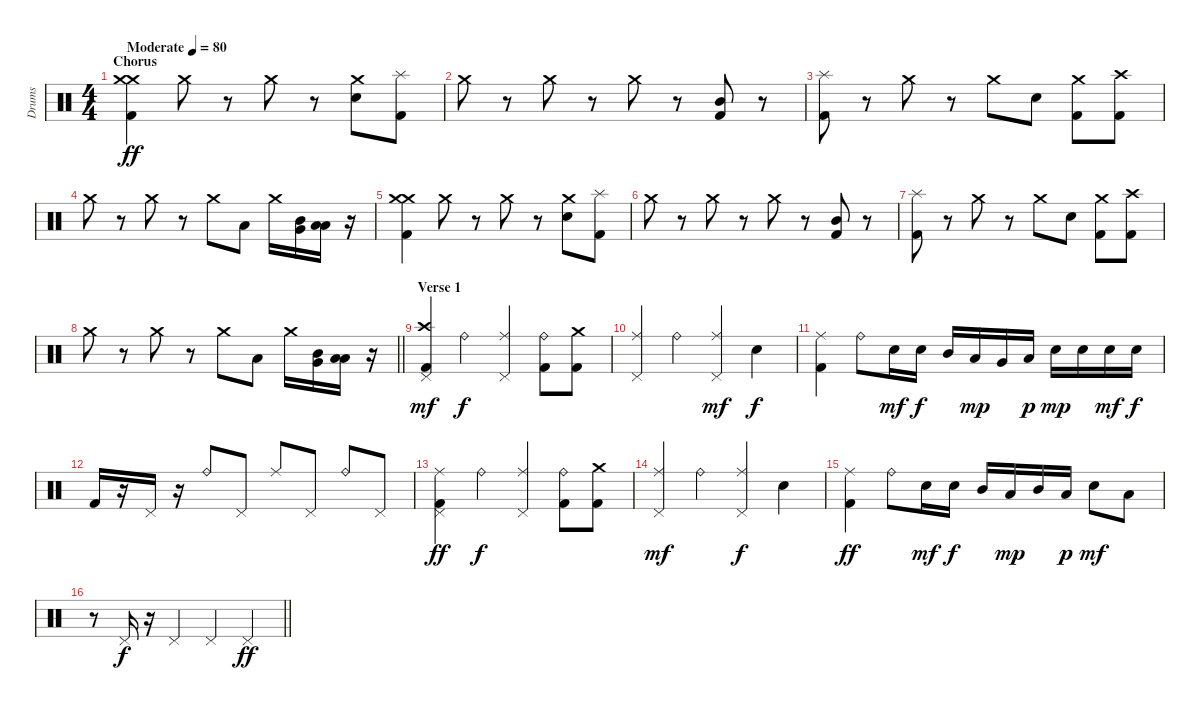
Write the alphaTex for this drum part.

\track ("Drums" "Drums") {instrument percussion}
\staff {score}
\articulation defaults
\ts (4 4)
\section ("" "Chorus")
\tempo (80 "Moderate")
\clef neutral
\ks c
("Crash medium (hit)" "Kick (hit) 2" "Crash medium (hit)").4{dy ff} "Crash medium (hit)".8 r.8 "Crash medium (hit)".8 r.8 ("Snare (hit) 2" "Crash medium (hit)").8 ("Kick (hit) 2" "Splash (hit)").8 |
"Crash medium (hit)".8 r.8 "Crash medium (hit)".8 r.8 "Crash medium (hit)".8 r.8 ("Kick (hit) 2" "Mid Tom (hit)").8 r.8 |
("Kick (hit) 2" "Splash (hit)").8 r.8 "Crash medium (hit)".8 r.8 "Crash medium (hit)".8 "Snare (hit) 2".8 ("Kick (hit) 2" "Crash medium (hit)").8 ("Kick (hit) 2" "Crash high (hit)").8 |
"Crash medium (hit)".8 r.8 "Crash medium (hit)".8 r.8 "Crash medium (hit)".8 "Low Tom (hit)".8 "Crash medium (hit)".16 ("Very Low Tom (hit)" "Mid Tom (hit)").16 ("Low Floor Tom (hit)" "Low Tom (hit)").16 r.16 |
("Crash medium (hit)" "Kick (hit) 2" "Crash medium (hit)").4 "Crash medium (hit)".8 r.8 "Crash medium (hit)".8 r.8 ("Snare (hit) 2" "Crash medium (hit)").8 ("Kick (hit) 2" "Splash (hit)").8 |
"Crash medium (hit)".8 r.8 "Crash medium (hit)".8 r.8 "Crash medium (hit)".8 r.8 ("Kick (hit) 2" "Mid Tom (hit)").8 r.8 |
("Kick (hit) 2" "Splash (hit)").8 r.8 "Crash medium (hit)".8 r.8 "Crash medium (hit)".8 "Snare (hit) 2".8 ("Kick (hit) 2" "Crash medium (hit)").8 ("Kick (hit) 2" "Crash high (hit)").8 |
\barLineRight lightlight "Crash medium (hit)".8
r.8 "Crash medium (hit)".8 r.8 "Crash medium (hit)".8 "Low Tom (hit)".8 "Crash medium (hit)".16 ("Very Low Tom (hit)" "Mid Tom (hit)").16 ("Low Floor Tom (hit)" "Low Tom (hit)").16 r.16 |
\section ("" "Verse 1")
("Pedal Hi-Hat (hit)" "Crash high (hit)" "Kick (hit) 2").4{dy mf} "Ride (bell)".4{dy f} ("Pedal Hi-Hat (hit)" "Ride (middle)").4 ("Kick (hit) 2" "Ride (bell)").8 ("Crash medium (hit)" "Kick (hit) 2").8 |
("Pedal Hi-Hat (hit)" "Ride (middle)").4 "Ride (bell)".4 ("Pedal Hi-Hat (hit)" "Ride (middle)").4{dy mf} "Snare (hit) 2".4{dy f} |
("Kick (hit) 2" "Ride (middle)").4 "Ride (bell)".8 "Snare (hit) 2".16{dy mf} "Snare (hit) 2".16{dy f} "Mid Tom (hit)".16 "Low Tom (hit)".16{dy mp} "Very Low Tom (hit)".16 "Low Floor Tom (hit)".16{dy p} "Snare (hit) 2".16{dy mp} "Snare (hit) 2".16 "Snare (hit) 2".16{dy mf} "Snare (hit) 2".16{dy f} |
"Kick (hit) 2".16 r.16 "Pedal Hi-Hat (hit)".16 r.16 "Ride (bell)".8 "Pedal Hi-Hat (hit)".8 "Ride (middle)".8 "Pedal Hi-Hat (hit)".8 "Ride (bell)".8 "Pedal Hi-Hat (hit)".8 |
("Pedal Hi-Hat (hit)" "Kick (hit) 2" "Ride (middle)").4{dy ff} "Ride (bell)".4{dy f} ("Pedal Hi-Hat (hit)" "Ride (middle)").4 ("Kick (hit) 2" "Ride (bell)").8 ("Crash medium (hit)" "Kick (hit) 2").8 |
("Pedal Hi-Hat (hit)" "Ride (middle)").4{dy mf} "Ride (bell)".4 ("Pedal Hi-Hat (hit)" "Ride (middle)").4{dy f} "Snare (hit) 2".4 |
("Kick (hit) 2" "Ride (middle)").4{dy ff} "Ride (bell)".8 "Snare (hit) 2".16{dy mf} "Snare (hit) 2".16{dy f} "Mid Tom (hit)".16 "Low Tom (hit)".16{dy mp} "Mid Tom (hit)".16 "Low Tom (hit)".16{dy p} "Snare (hit) 2".8{dy mf} "Low Tom (hit)".8 |
\barLineRight lightlight
r.8 "Pedal Hi-Hat (hit)".16{dy f} r.16 "Pedal Hi-Hat (hit)".4 "Pedal Hi-Hat (hit)".4 "Pedal Hi-Hat (hit)".4{dy ff}
